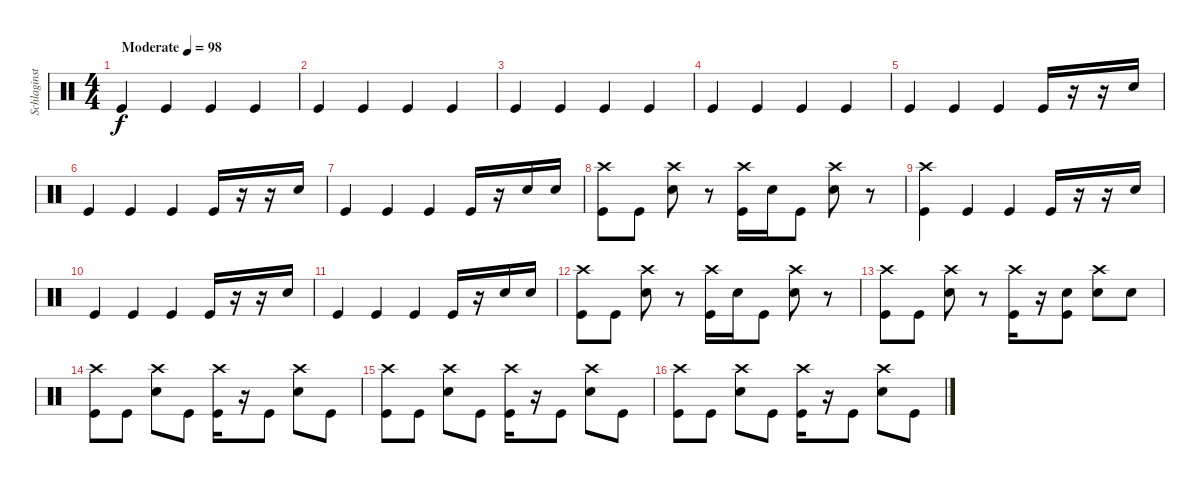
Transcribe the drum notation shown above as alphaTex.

\track ("Schlaginstrumente - Auswahl" "Schlaginst") {instrument percussion}
\staff {score}
\articulation defaults
\ts (4 4)
\tempo (98 "Moderate")
\clef neutral
\ks c "Kick (hit)".4{dy f} "Kick (hit)".4 "Kick (hit)".4 "Kick (hit)".4
|
"Kick (hit)".4 "Kick (hit)".4 "Kick (hit)".4 "Kick (hit)".4 |
"Kick (hit)".4 "Kick (hit)".4 "Kick (hit)".4 "Kick (hit)".4 |
"Kick (hit)".4 "Kick (hit)".4 "Kick (hit)".4 "Kick (hit)".4 |
"Kick (hit)".4 "Kick (hit)".4 "Kick (hit)".4 "Kick (hit)".16 r.16 r.16 "Snare (hit) 2".16 |
"Kick (hit)".4 "Kick (hit)".4 "Kick (hit)".4 "Kick (hit)".16 r.16 r.16 "Snare (hit) 2".16 |
"Kick (hit)".4 "Kick (hit)".4 "Kick (hit)".4 "Kick (hit)".16 r.16 "Snare (hit) 2".16 "Snare (hit) 2".16 |
("Crash high (hit)" "Kick (hit)").8 "Kick (hit)".8 ("Crash high (hit)" "Snare (hit) 2").8 r.8 ("Crash high (hit)" "Kick (hit)").16 "Snare (hit) 2".16 "Kick (hit)".8 ("Crash high (hit)" "Snare (hit) 2").8 r.8 |
("Crash high (hit)" "Kick (hit)").4 "Kick (hit)".4 "Kick (hit)".4 "Kick (hit)".16 r.16 r.16 "Snare (hit) 2".16 |
"Kick (hit)".4 "Kick (hit)".4 "Kick (hit)".4 "Kick (hit)".16 r.16 r.16 "Snare (hit) 2".16 |
"Kick (hit)".4 "Kick (hit)".4 "Kick (hit)".4 "Kick (hit)".16 r.16 "Snare (hit) 2".16 "Snare (hit) 2".16 |
("Crash high (hit)" "Kick (hit)").8 "Kick (hit)".8 ("Crash high (hit)" "Snare (hit) 2").8 r.8 ("Crash high (hit)" "Kick (hit)").16 "Snare (hit) 2".16 "Kick (hit)".8 ("Crash high (hit)" "Snare (hit) 2").8 r.8 |
("Crash high (hit)" "Kick (hit)").8 "Kick (hit)".8 ("Crash high (hit)" "Snare (hit) 2").8 r.8 ("Crash high (hit)" "Kick (hit)").16 r.16 ("Snare (hit) 2" "Kick (hit)").8 ("Crash high (hit)" "Snare (hit) 2").8 "Snare (hit) 2".8 |
("Crash high (hit)" "Kick (hit)").8 "Kick (hit)".8 ("Crash high (hit)" "Snare (hit) 2").8 "Kick (hit)".8 ("Crash high (hit)" "Kick (hit)").16 r.16 "Kick (hit)".8 ("Crash high (hit)" "Snare (hit) 2").8 "Kick (hit)".8 |
("Crash high (hit)" "Kick (hit)").8 "Kick (hit)".8 ("Crash high (hit)" "Snare (hit) 2").8 "Kick (hit)".8 ("Crash high (hit)" "Kick (hit)").16 r.16 "Kick (hit)".8 ("Crash high (hit)" "Snare (hit) 2").8 "Kick (hit)".8 |
("Crash high (hit)" "Kick (hit)").8 "Kick (hit)".8 ("Crash high (hit)" "Snare (hit) 2").8 "Kick (hit)".8 ("Crash high (hit)" "Kick (hit)").16 r.16 "Kick (hit)".8 ("Crash high (hit)" "Snare (hit) 2").8 "Kick (hit)".8
